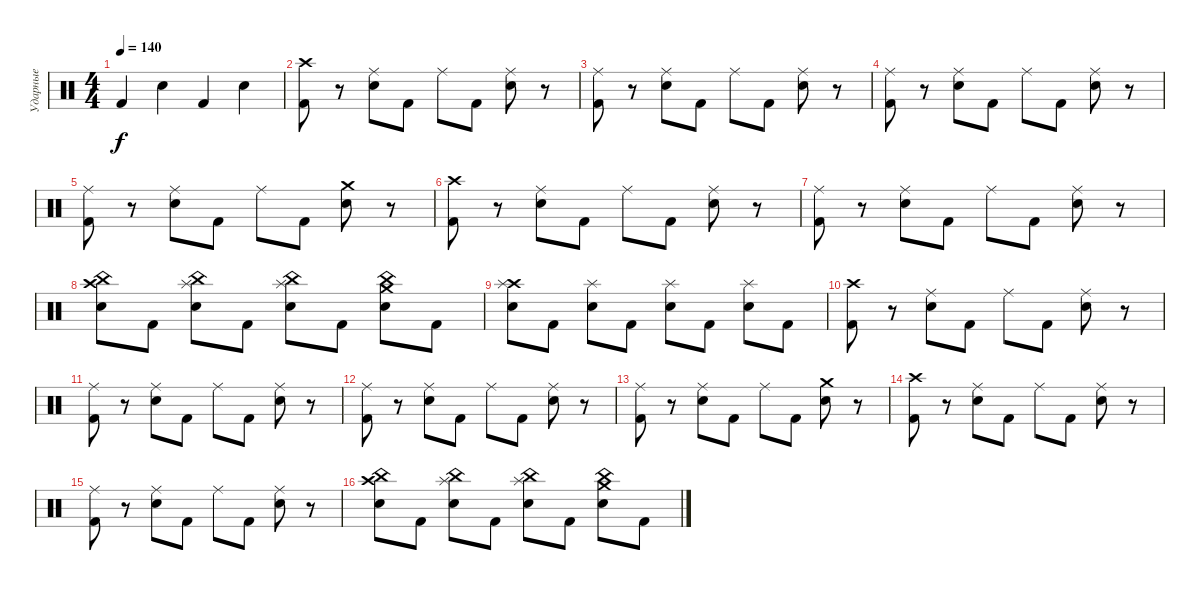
\track ("Ударные" "Ударные") {instrument percussion}
\staff {score}
\articulation defaults
\ts (4 4)
\tempo 140
\clef neutral
\ks c "Kick (hit) 2".4{dy f} "Electric Snare (hit)".4 "Kick (hit) 2".4 "Electric Snare (hit)".4
|
("Crash high (hit)" "Kick (hit) 2").8 r.8 ("Ride (middle)" "Electric Snare (hit)").8 "Kick (hit) 2".8 "Ride (middle)".8 "Kick (hit) 2".8 ("Ride (middle)" "Electric Snare (hit)").8 r.8 |
("Ride (middle)" "Kick (hit) 2").8 r.8 ("Ride (middle)" "Electric Snare (hit)").8 "Kick (hit) 2".8 "Ride (middle)".8 "Kick (hit) 2".8 ("Ride (middle)" "Electric Snare (hit)").8 r.8 |
("Ride (middle)" "Kick (hit) 2").8 r.8 ("Ride (middle)" "Electric Snare (hit)").8 "Kick (hit) 2".8 "Ride (middle)".8 "Kick (hit) 2".8 ("Ride (middle)" "Electric Snare (hit)").8 r.8 |
("Ride (middle)" "Kick (hit) 2").8 r.8 ("Ride (middle)" "Electric Snare (hit)").8 "Kick (hit) 2".8 "Ride (middle)".8 "Kick (hit) 2".8 ("Crash medium (hit)" "Electric Snare (hit)").8 r.8 |
("Crash high (hit)" "Kick (hit) 2").8 r.8 ("Ride (middle)" "Electric Snare (hit)").8 "Kick (hit) 2".8 "Ride (middle)".8 "Kick (hit) 2".8 ("Ride (middle)" "Electric Snare (hit)").8 r.8 |
("Ride (middle)" "Kick (hit) 2").8 r.8 ("Ride (middle)" "Electric Snare (hit)").8 "Kick (hit) 2".8 "Ride (middle)".8 "Kick (hit) 2".8 ("Ride (middle)" "Electric Snare (hit)").8 r.8 |
("Crash high (hit)" "China (hit)" "Electric Snare (hit)").8 "Kick (hit) 2".8 ("Splash (hit)" "China (hit)" "Electric Snare (hit)").8 "Kick (hit) 2".8 ("Splash (hit)" "China (hit)" "Electric Snare (hit)").8 "Kick (hit) 2".8 ("Crash medium (hit)" "China (hit)" "Electric Snare (hit)").8 "Kick (hit) 2".8 |
("Crash high (hit)" "Splash (hit)" "Electric Snare (hit)").8 "Kick (hit) 2".8 ("Splash (hit)" "Electric Snare (hit)").8 "Kick (hit) 2".8 ("Splash (hit)" "Electric Snare (hit)").8 "Kick (hit) 2".8 ("Splash (hit)" "Electric Snare (hit)").8 "Kick (hit) 2".8 |
("Crash high (hit)" "Kick (hit) 2").8 r.8 ("Ride (middle)" "Electric Snare (hit)").8 "Kick (hit) 2".8 "Ride (middle)".8 "Kick (hit) 2".8 ("Ride (middle)" "Electric Snare (hit)").8 r.8 |
("Ride (middle)" "Kick (hit) 2").8 r.8 ("Ride (middle)" "Electric Snare (hit)").8 "Kick (hit) 2".8 "Ride (middle)".8 "Kick (hit) 2".8 ("Ride (middle)" "Electric Snare (hit)").8 r.8 |
("Ride (middle)" "Kick (hit) 2").8 r.8 ("Ride (middle)" "Electric Snare (hit)").8 "Kick (hit) 2".8 "Ride (middle)".8 "Kick (hit) 2".8 ("Ride (middle)" "Electric Snare (hit)").8 r.8 |
("Ride (middle)" "Kick (hit) 2").8 r.8 ("Ride (middle)" "Electric Snare (hit)").8 "Kick (hit) 2".8 "Ride (middle)".8 "Kick (hit) 2".8 ("Crash medium (hit)" "Electric Snare (hit)").8 r.8 |
("Crash high (hit)" "Kick (hit) 2").8 r.8 ("Ride (middle)" "Electric Snare (hit)").8 "Kick (hit) 2".8 "Ride (middle)".8 "Kick (hit) 2".8 ("Ride (middle)" "Electric Snare (hit)").8 r.8 |
("Ride (middle)" "Kick (hit) 2").8 r.8 ("Ride (middle)" "Electric Snare (hit)").8 "Kick (hit) 2".8 "Ride (middle)".8 "Kick (hit) 2".8 ("Ride (middle)" "Electric Snare (hit)").8 r.8 |
("Crash high (hit)" "China (hit)" "Electric Snare (hit)").8 "Kick (hit) 2".8 ("Splash (hit)" "China (hit)" "Electric Snare (hit)").8 "Kick (hit) 2".8 ("Splash (hit)" "China (hit)" "Electric Snare (hit)").8 "Kick (hit) 2".8 ("Crash medium (hit)" "China (hit)" "Electric Snare (hit)").8 "Kick (hit) 2".8
